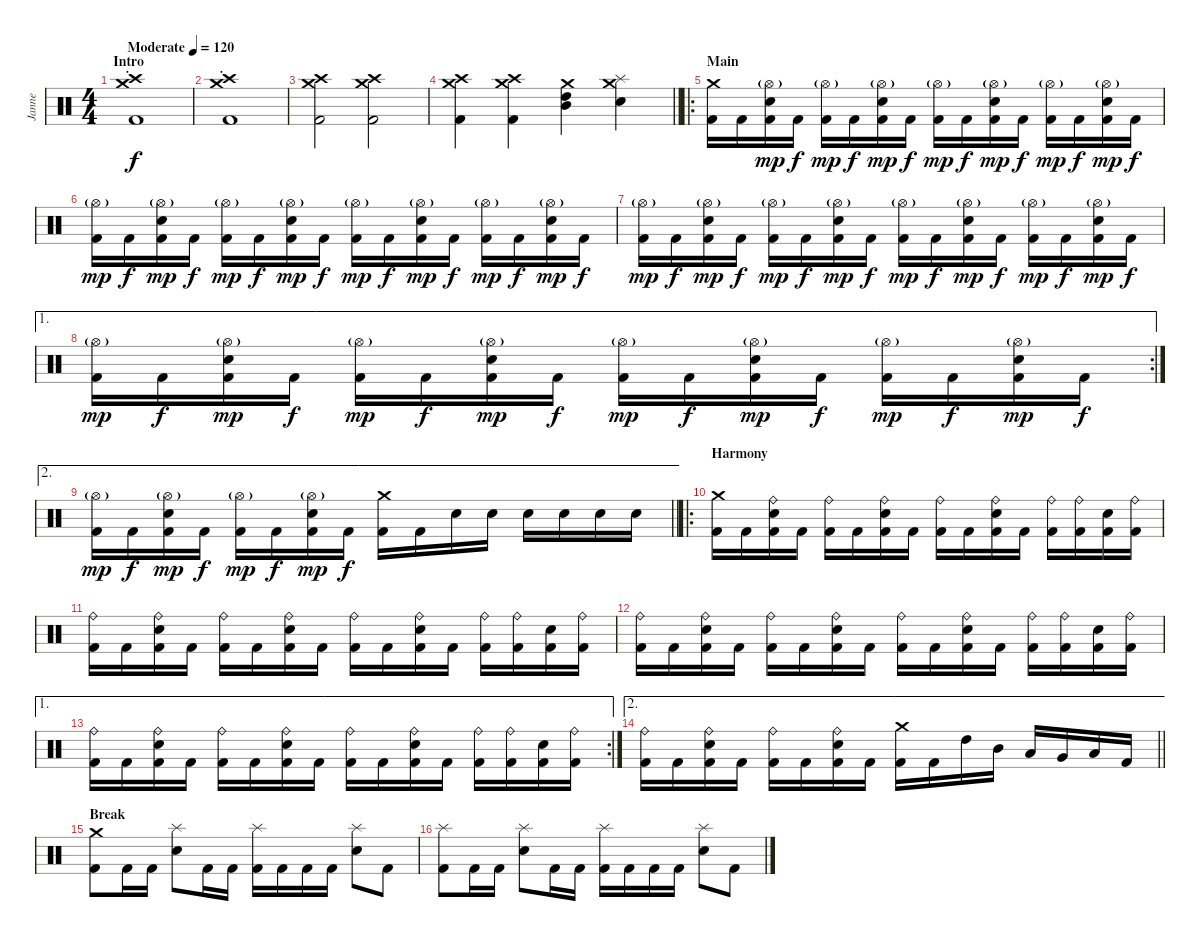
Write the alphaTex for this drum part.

\track ("Janne" "Janne") {instrument percussion}
\staff {score}
\articulation defaults
\ts (4 4)
\section ("" "Intro")
\tempo (120 "Moderate")
\tempo 144
\tempo (120 "Moderate")
\clef neutral
\ks c
("Kick (hit) 2" "Crash high (hit)" "Crash medium (hit)"{st}).1{dy f} |
("Kick (hit) 2" "Crash high (hit)" "Crash medium (hit)"{st}).1 |
("Kick (hit) 2" "Crash high (hit)" "Crash medium (hit)").2 ("Kick (hit) 2" "Crash high (hit)" "Crash medium (hit)").2 |
\barLineRight lightlight
("Kick (hit) 2" "Crash high (hit)" "Crash medium (hit)").4 ("Kick (hit) 2" "Crash high (hit)" "Crash medium (hit)").4 ("High Tom (hit)" "Mid Tom (hit)" "Crash medium (hit)").4 ("Snare (hit) 2" "Splash (hit)" "Crash medium (hit)").4 |
\ro
\section ("" "Main")
("Kick (hit) 2" "Crash medium (hit)").16 "Kick (hit) 2".16 ("Kick (hit) 2" "Snare (hit) 2" "Hi-Hat (open)"{g}).16{dy mp} "Kick (hit) 2".16{dy f} ("Kick (hit) 2" "Hi-Hat (open)"{g}).16{dy mp} "Kick (hit) 2".16{dy f} ("Kick (hit) 2" "Snare (hit) 2" "Hi-Hat (open)"{g}).16{dy mp} "Kick (hit) 2".16{dy f} ("Kick (hit) 2" "Hi-Hat (open)"{g}).16{dy mp} "Kick (hit) 2".16{dy f} ("Kick (hit) 2" "Snare (hit) 2" "Hi-Hat (open)"{g}).16{dy mp} "Kick (hit) 2".16{dy f} ("Kick (hit) 2" "Hi-Hat (open)"{g}).16{dy mp} "Kick (hit) 2".16{dy f} ("Kick (hit) 2" "Snare (hit) 2" "Hi-Hat (open)"{g}).16{dy mp} "Kick (hit) 2".16{dy f} |
("Kick (hit) 2" "Hi-Hat (open)"{g}).16{dy mp} "Kick (hit) 2".16{dy f} ("Kick (hit) 2" "Snare (hit) 2" "Hi-Hat (open)"{g}).16{dy mp} "Kick (hit) 2".16{dy f} ("Kick (hit) 2" "Hi-Hat (open)"{g}).16{dy mp} "Kick (hit) 2".16{dy f} ("Kick (hit) 2" "Snare (hit) 2" "Hi-Hat (open)"{g}).16{dy mp} "Kick (hit) 2".16{dy f} ("Kick (hit) 2" "Hi-Hat (open)"{g}).16{dy mp} "Kick (hit) 2".16{dy f} ("Kick (hit) 2" "Snare (hit) 2" "Hi-Hat (open)"{g}).16{dy mp} "Kick (hit) 2".16{dy f} ("Kick (hit) 2" "Hi-Hat (open)"{g}).16{dy mp} "Kick (hit) 2".16{dy f} ("Kick (hit) 2" "Snare (hit) 2" "Hi-Hat (open)"{g}).16{dy mp} "Kick (hit) 2".16{dy f} |
("Kick (hit) 2" "Hi-Hat (open)"{g}).16{dy mp} "Kick (hit) 2".16{dy f} ("Kick (hit) 2" "Snare (hit) 2" "Hi-Hat (open)"{g}).16{dy mp} "Kick (hit) 2".16{dy f} ("Kick (hit) 2" "Hi-Hat (open)"{g}).16{dy mp} "Kick (hit) 2".16{dy f} ("Kick (hit) 2" "Snare (hit) 2" "Hi-Hat (open)"{g}).16{dy mp} "Kick (hit) 2".16{dy f} ("Kick (hit) 2" "Hi-Hat (open)"{g}).16{dy mp} "Kick (hit) 2".16{dy f} ("Kick (hit) 2" "Snare (hit) 2" "Hi-Hat (open)"{g}).16{dy mp} "Kick (hit) 2".16{dy f} ("Kick (hit) 2" "Hi-Hat (open)"{g}).16{dy mp} "Kick (hit) 2".16{dy f} ("Kick (hit) 2" "Snare (hit) 2" "Hi-Hat (open)"{g}).16{dy mp} "Kick (hit) 2".16{dy f} |
\ae 1
\rc 2
("Kick (hit) 2" "Hi-Hat (open)"{g}).16{dy mp} "Kick (hit) 2".16{dy f} ("Kick (hit) 2" "Snare (hit) 2" "Hi-Hat (open)"{g}).16{dy mp} "Kick (hit) 2".16{dy f} ("Kick (hit) 2" "Hi-Hat (open)"{g}).16{dy mp} "Kick (hit) 2".16{dy f} ("Kick (hit) 2" "Snare (hit) 2" "Hi-Hat (open)"{g}).16{dy mp} "Kick (hit) 2".16{dy f} ("Kick (hit) 2" "Hi-Hat (open)"{g}).16{dy mp} "Kick (hit) 2".16{dy f} ("Kick (hit) 2" "Snare (hit) 2" "Hi-Hat (open)"{g}).16{dy mp} "Kick (hit) 2".16{dy f} ("Kick (hit) 2" "Hi-Hat (open)"{g}).16{dy mp} "Kick (hit) 2".16{dy f} ("Kick (hit) 2" "Snare (hit) 2" "Hi-Hat (open)"{g}).16{dy mp} "Kick (hit) 2".16{dy f} |
\ae 2
\barLineRight lightlight
("Kick (hit) 2" "Hi-Hat (open)"{g}).16{dy mp} "Kick (hit) 2".16{dy f} ("Kick (hit) 2" "Snare (hit) 2" "Hi-Hat (open)"{g}).16{dy mp} "Kick (hit) 2".16{dy f} ("Kick (hit) 2" "Hi-Hat (open)"{g}).16{dy mp} "Kick (hit) 2".16{dy f} ("Kick (hit) 2" "Snare (hit) 2" "Hi-Hat (open)"{g}).16{dy mp} "Kick (hit) 2".16{dy f} ("Kick (hit) 2" "Crash medium (hit)").16 "Kick (hit) 2".16 "Snare (hit) 2".16 "Snare (hit) 2".16 "Snare (hit) 2".16 "Snare (hit) 2".16 "Snare (hit) 2".16 "Snare (hit) 2".16 |
\ro
\section ("" "Harmony")
("Kick (hit) 2" "Crash medium (hit)").16 "Kick (hit) 2".16 ("Kick (hit) 2" "Snare (hit) 2" "Ride (bell)").16 "Kick (hit) 2".16 ("Kick (hit) 2" "Ride (bell)").16 "Kick (hit) 2".16 ("Kick (hit) 2" "Snare (hit) 2" "Ride (bell)").16 "Kick (hit) 2".16 ("Kick (hit) 2" "Ride (bell)").16 "Kick (hit) 2".16 ("Kick (hit) 2" "Snare (hit) 2" "Ride (bell)").16 "Kick (hit) 2".16 ("Kick (hit) 2" "Ride (bell)").16 ("Kick (hit) 2" "Ride (bell)").16 ("Kick (hit) 2" "Snare (hit) 2").16 ("Kick (hit) 2" "Ride (bell)").16 |
("Kick (hit) 2" "Ride (bell)").16 "Kick (hit) 2".16 ("Kick (hit) 2" "Snare (hit) 2" "Ride (bell)").16 "Kick (hit) 2".16 ("Kick (hit) 2" "Ride (bell)").16 "Kick (hit) 2".16 ("Kick (hit) 2" "Snare (hit) 2" "Ride (bell)").16 "Kick (hit) 2".16 ("Kick (hit) 2" "Ride (bell)").16 "Kick (hit) 2".16 ("Kick (hit) 2" "Snare (hit) 2" "Ride (bell)").16 "Kick (hit) 2".16 ("Kick (hit) 2" "Ride (bell)").16 ("Kick (hit) 2" "Ride (bell)").16 ("Kick (hit) 2" "Snare (hit) 2").16 ("Kick (hit) 2" "Ride (bell)").16 |
("Kick (hit) 2" "Ride (bell)").16 "Kick (hit) 2".16 ("Kick (hit) 2" "Snare (hit) 2" "Ride (bell)").16 "Kick (hit) 2".16 ("Kick (hit) 2" "Ride (bell)").16 "Kick (hit) 2".16 ("Kick (hit) 2" "Snare (hit) 2" "Ride (bell)").16 "Kick (hit) 2".16 ("Kick (hit) 2" "Ride (bell)").16 "Kick (hit) 2".16 ("Kick (hit) 2" "Snare (hit) 2" "Ride (bell)").16 "Kick (hit) 2".16 ("Kick (hit) 2" "Ride (bell)").16 ("Kick (hit) 2" "Ride (bell)").16 ("Kick (hit) 2" "Snare (hit) 2").16 ("Kick (hit) 2" "Ride (bell)").16 |
\ae 1
\rc 2
("Kick (hit) 2" "Ride (bell)").16 "Kick (hit) 2".16 ("Kick (hit) 2" "Snare (hit) 2" "Ride (bell)").16 "Kick (hit) 2".16 ("Kick (hit) 2" "Ride (bell)").16 "Kick (hit) 2".16 ("Kick (hit) 2" "Snare (hit) 2" "Ride (bell)").16 "Kick (hit) 2".16 ("Kick (hit) 2" "Ride (bell)").16 "Kick (hit) 2".16 ("Kick (hit) 2" "Snare (hit) 2" "Ride (bell)").16 "Kick (hit) 2".16 ("Kick (hit) 2" "Ride (bell)").16 ("Kick (hit) 2" "Ride (bell)").16 ("Kick (hit) 2" "Snare (hit) 2").16 ("Kick (hit) 2" "Ride (bell)").16 |
\ae 2
\barLineRight lightlight
("Kick (hit) 2" "Ride (bell)").16 "Kick (hit) 2".16 ("Kick (hit) 2" "Snare (hit) 2" "Ride (bell)").16 "Kick (hit) 2".16 ("Kick (hit) 2" "Ride (bell)").16 "Kick (hit) 2".16 ("Kick (hit) 2" "Snare (hit) 2" "Ride (bell)").16 "Kick (hit) 2".16 ("Kick (hit) 2" "Crash medium (hit)").16 "Kick (hit) 2".16 "High Tom (hit)".16 "Mid Tom (hit)".16 "Low Tom (hit)".16 "Very Low Tom (hit)".16 "Low Floor Tom (hit)".16 "Kick (hit) 2".16 |
\section ("" "Break")
("Kick (hit) 2" "Crash medium (hit)").8 "Kick (hit) 2".16 "Kick (hit) 2".16 ("Snare (hit) 2" "Splash (hit)").8 "Kick (hit) 2".16 "Kick (hit) 2".16 ("Kick (hit) 2" "Splash (hit)").16 "Kick (hit) 2".16 "Kick (hit) 2".16 "Kick (hit) 2".16 ("Snare (hit) 2" "Splash (hit)").8 "Kick (hit) 2".8 |
("Kick (hit) 2" "Splash (hit)").8 "Kick (hit) 2".16 "Kick (hit) 2".16 ("Snare (hit) 2" "Splash (hit)").8 "Kick (hit) 2".16 "Kick (hit) 2".16 ("Kick (hit) 2" "Splash (hit)").16 "Kick (hit) 2".16 "Kick (hit) 2".16 "Kick (hit) 2".16 ("Snare (hit) 2" "Splash (hit)").8 "Kick (hit) 2".8
